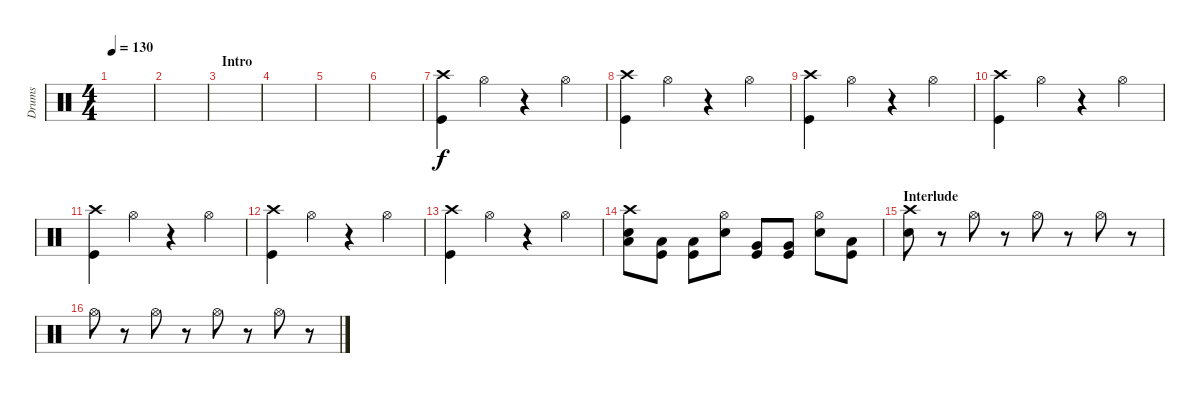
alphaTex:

\track ("Drums" "Drums") {instrument percussion}
\staff {score}
\articulation defaults
\ts (4 4)
\tempo 130
\clef neutral
\ks c
|
|
\section ("" "Intro")
|
|
|
|
("Crash high (hit)" "Kick (hit)").4 "Hi-Hat (open)".4 r.4 "Hi-Hat (open)".4 |
("Crash high (hit)" "Kick (hit)").4 "Hi-Hat (open)".4 r.4 "Hi-Hat (open)".4 |
("Crash high (hit)" "Kick (hit)").4 "Hi-Hat (open)".4 r.4 "Hi-Hat (open)".4 |
("Crash high (hit)" "Kick (hit)").4 "Hi-Hat (open)".4 r.4 "Hi-Hat (open)".4 |
("Crash high (hit)" "Kick (hit)").4 "Hi-Hat (open)".4 r.4 "Hi-Hat (open)".4 |
("Crash high (hit)" "Kick (hit)").4 "Hi-Hat (open)".4 r.4 "Hi-Hat (open)".4 |
("Crash high (hit)" "Kick (hit)").4 "Hi-Hat (open)".4 r.4 "Hi-Hat (open)".4 |
("Crash high (hit)" "Electric Snare (hit)" "Low Floor Tom (hit)").8 ("Low Floor Tom (hit)" "Kick (hit)").8 ("Low Floor Tom (hit)" "Kick (hit)").8 ("Hi-Hat (open)" "Electric Snare (hit)").8 ("Very Low Tom (hit)" "Kick (hit)").8 ("Very Low Tom (hit)" "Kick (hit)").8 ("Hi-Hat (open)" "Electric Snare (hit)").8 ("Low Tom (hit)" "Kick (hit)").8 |
\section ("" "Interlude")
("Crash high (hit)" "Electric Snare (hit)").8 r.8 "Hi-Hat (open)".8 r.8 "Hi-Hat (open)".8 r.8 "Hi-Hat (open)".8 r.8 |
"Hi-Hat (open)".8 r.8 "Hi-Hat (open)".8 r.8 "Hi-Hat (open)".8 r.8 "Hi-Hat (open)".8 r.8
